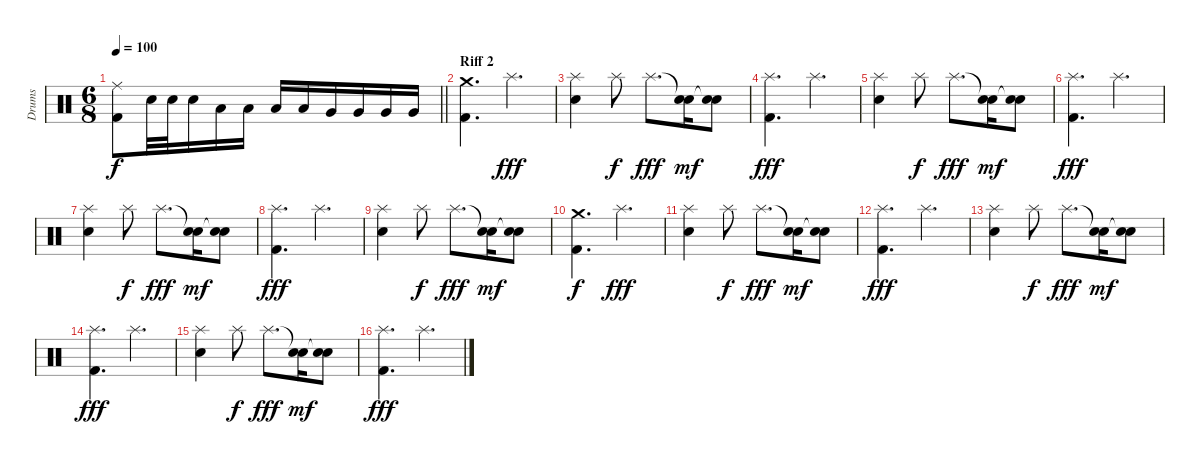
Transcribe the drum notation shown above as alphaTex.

\track ("Drums" "Drums") {instrument percussion}
\staff {score}
\articulation defaults
\ts (6 8)
\tempo 100
\clef neutral
\barLineRight lightlight
\ks c
("Ride (middle)" "Kick (hit) 2").8{dy f} "Snare (hit) 2".32 "Snare (hit) 2".32 "Snare (hit) 2".16 "Low Tom (hit)".16 "Low Tom (hit)".16 "Low Tom (hit)".16 "Low Tom (hit)".16 "Very Low Tom (hit)".16 "Very Low Tom (hit)".16 "Very Low Tom (hit)".16 "Very Low Tom (hit)".16 |
\section ("" "Riff 2")
("Crash medium (hit)" "Kick (hit) 2").4{d} "Splash (hit)".4{d dy fff} |
("Splash (hit)" "Snare (hit) 2").4 "Splash (hit)".8{dy f} "Splash (hit)".8{d dy fff} ("Snare (hit)"{t} "Snare (hit) 2").16{dy mf} ("Snare (hit)"{t} "Snare (hit) 2").8 |
("Splash (hit)" "Kick (hit) 2").4{d dy fff} "Splash (hit)".4{d} |
("Splash (hit)" "Snare (hit) 2").4 "Splash (hit)".8{dy f} "Splash (hit)".8{d dy fff} ("Snare (hit)"{t} "Snare (hit) 2").16{dy mf} ("Snare (hit)"{t} "Snare (hit) 2").8 |
("Splash (hit)" "Kick (hit) 2").4{d dy fff} "Splash (hit)".4{d} |
("Splash (hit)" "Snare (hit) 2").4 "Splash (hit)".8{dy f} "Splash (hit)".8{d dy fff} ("Snare (hit)"{t} "Snare (hit) 2").16{dy mf} ("Snare (hit)"{t} "Snare (hit) 2").8 |
("Splash (hit)" "Kick (hit) 2").4{d dy fff} "Splash (hit)".4{d} |
("Splash (hit)" "Snare (hit) 2").4 "Splash (hit)".8{dy f} "Splash (hit)".8{d dy fff} ("Snare (hit)"{t} "Snare (hit) 2").16{dy mf} ("Snare (hit)"{t} "Snare (hit) 2").8 |
("Crash medium (hit)" "Kick (hit) 2").4{d dy f} "Splash (hit)".4{d dy fff} |
("Splash (hit)" "Snare (hit) 2").4 "Splash (hit)".8{dy f} "Splash (hit)".8{d dy fff} ("Snare (hit)"{t} "Snare (hit) 2").16{dy mf} ("Snare (hit)"{t} "Snare (hit) 2").8 |
("Splash (hit)" "Kick (hit) 2").4{d dy fff} "Splash (hit)".4{d} |
("Splash (hit)" "Snare (hit) 2").4 "Splash (hit)".8{dy f} "Splash (hit)".8{d dy fff} ("Snare (hit)"{t} "Snare (hit) 2").16{dy mf} ("Snare (hit)"{t} "Snare (hit) 2").8 |
("Splash (hit)" "Kick (hit) 2").4{d dy fff} "Splash (hit)".4{d} |
("Splash (hit)" "Snare (hit) 2").4 "Splash (hit)".8{dy f} "Splash (hit)".8{d dy fff} ("Snare (hit)"{t} "Snare (hit) 2").16{dy mf} ("Snare (hit)"{t} "Snare (hit) 2").8 |
("Splash (hit)" "Kick (hit) 2").4{d dy fff} "Splash (hit)".4{d}
